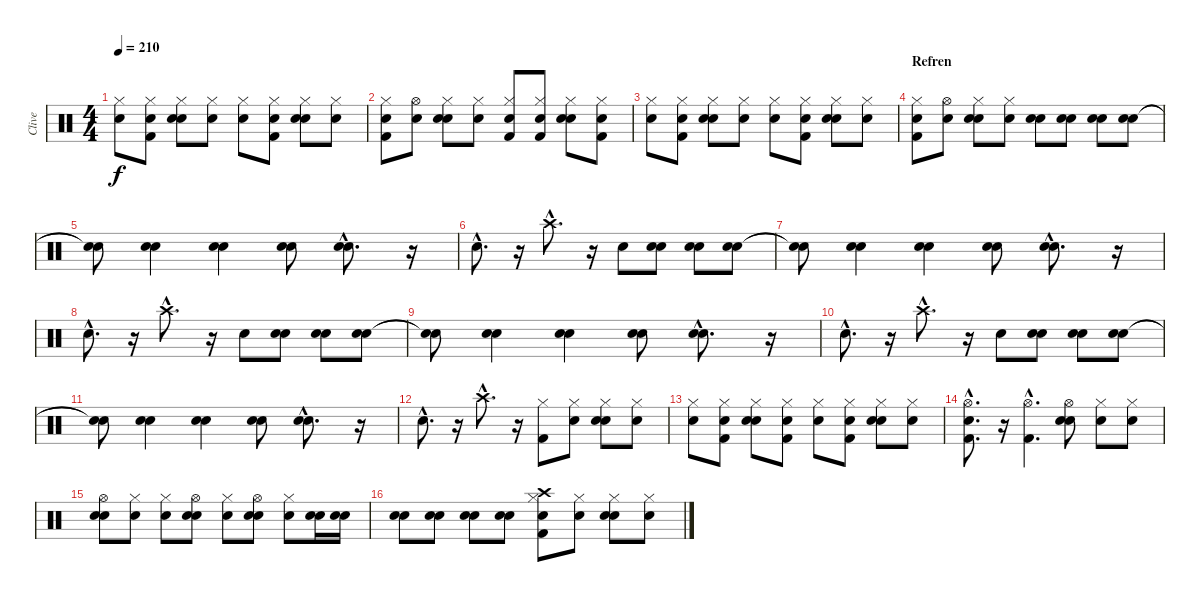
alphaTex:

\track ("Clive" "Clive") {instrument percussion}
\staff {score}
\articulation defaults
\ts (4 4)
\tempo 210
\clef neutral
\ks c
("Snare (hit)" "Hi-Hat (closed)").8{dy f} ("Snare (hit)" "Kick (hit) 2" "Hi-Hat (closed)").8 ("Snare (hit)" "Snare (hit) 2" "Hi-Hat (closed)").8 ("Snare (hit)" "Hi-Hat (closed)").8 ("Snare (hit)" "Hi-Hat (closed)").8 ("Snare (hit)" "Kick (hit) 2" "Hi-Hat (closed)").8 ("Snare (hit)" "Snare (hit) 2" "Hi-Hat (closed)").8 ("Snare (hit)" "Hi-Hat (closed)").8 |
("Snare (hit)" "Kick (hit) 2" "Hi-Hat (closed)").8 ("Snare (hit)" "Hi-Hat (open)").8 ("Snare (hit)" "Snare (hit) 2" "Hi-Hat (closed)").8 ("Snare (hit)" "Hi-Hat (closed)").8 ("Snare (hit)" "Kick (hit) 2" "Hi-Hat (closed)").8 ("Snare (hit)" "Kick (hit) 2" "Hi-Hat (closed)").8 ("Snare (hit)" "Snare (hit) 2" "Hi-Hat (closed)").8 ("Snare (hit)" "Kick (hit) 2" "Hi-Hat (closed)").8 |
("Snare (hit)" "Hi-Hat (closed)").8 ("Snare (hit)" "Kick (hit) 2" "Hi-Hat (closed)").8 ("Snare (hit)" "Snare (hit) 2" "Hi-Hat (closed)").8 ("Snare (hit)" "Hi-Hat (closed)").8 ("Snare (hit)" "Hi-Hat (closed)").8 ("Snare (hit)" "Kick (hit) 2" "Hi-Hat (closed)").8 ("Snare (hit)" "Snare (hit) 2" "Hi-Hat (closed)").8 ("Snare (hit)" "Hi-Hat (closed)").8 |
\section ("" "Refren")
("Snare (hit)" "Kick (hit) 2" "Hi-Hat (closed)").8 ("Snare (hit)" "Hi-Hat (open)").8 ("Snare (hit)" "Snare (hit) 2" "Hi-Hat (closed)").8 ("Snare (hit)" "Hi-Hat (closed)").8 ("Snare (hit)" "Snare (hit) 2").8 ("Snare (hit)" "Snare (hit) 2").8 ("Snare (hit)" "Snare (hit) 2").8 ("Snare (hit)" "Snare (hit) 2").8 |
("Snare (hit)"{t} "Snare (hit)"{t}).8 ("Snare (hit)" "Snare (hit) 2").4 ("Snare (hit)" "Snare (hit) 2").4 ("Snare (hit)" "Snare (hit) 2").8 ("Snare (hit)"{hac} "Snare (hit) 2"{hac}).8{d} r.16 |
"Snare (hit) 2"{hac}.8{d} r.16 "Crash high (hit)"{hac}.8{d} r.16 "Snare (hit) 2".8 ("Snare (hit)" "Snare (hit) 2").8 ("Snare (hit)" "Snare (hit) 2").8 ("Snare (hit)" "Snare (hit) 2").8 |
("Snare (hit)"{t} "Snare (hit)"{t}).8 ("Snare (hit)" "Snare (hit) 2").4 ("Snare (hit)" "Snare (hit) 2").4 ("Snare (hit)" "Snare (hit) 2").8 ("Snare (hit)"{hac} "Snare (hit) 2"{hac}).8{d} r.16 |
"Snare (hit) 2"{hac}.8{d} r.16 "Crash high (hit)"{hac}.8{d} r.16 "Snare (hit) 2".8 ("Snare (hit)" "Snare (hit) 2").8 ("Snare (hit)" "Snare (hit) 2").8 ("Snare (hit)" "Snare (hit) 2").8 |
("Snare (hit)"{t} "Snare (hit)"{t}).8 ("Snare (hit)" "Snare (hit) 2").4 ("Snare (hit)" "Snare (hit) 2").4 ("Snare (hit)" "Snare (hit) 2").8 ("Snare (hit)"{hac} "Snare (hit) 2"{hac}).8{d} r.16 |
"Snare (hit) 2"{hac}.8{d} r.16 "Crash high (hit)"{hac}.8{d} r.16 "Snare (hit) 2".8 ("Snare (hit)" "Snare (hit) 2").8 ("Snare (hit)" "Snare (hit) 2").8 ("Snare (hit)" "Snare (hit) 2").8 |
("Snare (hit)"{t} "Snare (hit)"{t}).8 ("Snare (hit)" "Snare (hit) 2").4 ("Snare (hit)" "Snare (hit) 2").4 ("Snare (hit)" "Snare (hit) 2").8 ("Snare (hit)"{hac} "Snare (hit) 2"{hac}).8{d} r.16 |
"Snare (hit) 2"{hac}.8{d} r.16 "Crash high (hit)"{hac}.8{d} r.16 ("Kick (hit) 2" "Hi-Hat (closed)").8 ("Snare (hit)" "Hi-Hat (closed)").8 ("Snare (hit)" "Snare (hit) 2" "Hi-Hat (closed)").8 ("Snare (hit)" "Hi-Hat (closed)").8 |
("Snare (hit)" "Hi-Hat (closed)").8 ("Snare (hit)" "Kick (hit) 2" "Hi-Hat (closed)").8 ("Snare (hit)" "Snare (hit) 2" "Hi-Hat (closed)").8 ("Snare (hit)" "Kick (hit) 2" "Hi-Hat (closed)").8 ("Snare (hit)" "Hi-Hat (closed)").8 ("Snare (hit)" "Kick (hit) 2" "Hi-Hat (closed)").8 ("Snare (hit)" "Snare (hit) 2" "Hi-Hat (closed)").8 ("Snare (hit)" "Hi-Hat (closed)").8 |
("Snare (hit)"{hac} "Kick (hit) 2"{hac} "Hi-Hat (open)"{hac}).8{d} r.16 ("Kick (hit) 2"{hac} "Hi-Hat (open)"{hac}).4{d} ("Snare (hit)" "Snare (hit) 2" "Hi-Hat (open)").8 ("Snare (hit)" "Hi-Hat (closed)").8 ("Snare (hit)" "Hi-Hat (closed)").8 |
("Snare (hit)" "Snare (hit) 2" "Hi-Hat (open)").8 ("Snare (hit)" "Hi-Hat (closed)").8 ("Snare (hit)" "Hi-Hat (closed)").8 ("Snare (hit)" "Snare (hit) 2" "Hi-Hat (open)").8 ("Snare (hit)" "Hi-Hat (closed)").8 ("Snare (hit)" "Snare (hit) 2" "Hi-Hat (open)").8 ("Snare (hit)" "Hi-Hat (closed)").8 ("Snare (hit)" "Snare (hit) 2").16 ("Snare (hit)" "Snare (hit) 2").16 |
("Snare (hit)" "Snare (hit) 2").8 ("Snare (hit)" "Snare (hit) 2").8 ("Snare (hit)" "Snare (hit) 2").8 ("Snare (hit)" "Snare (hit) 2").8 ("Snare (hit)" "Kick (hit) 2" "Hi-Hat (closed)" "Crash high (hit)").8 ("Snare (hit)" "Hi-Hat (closed)").8 ("Snare (hit)" "Snare (hit) 2" "Hi-Hat (closed)").8 ("Snare (hit)" "Hi-Hat (closed)").8
